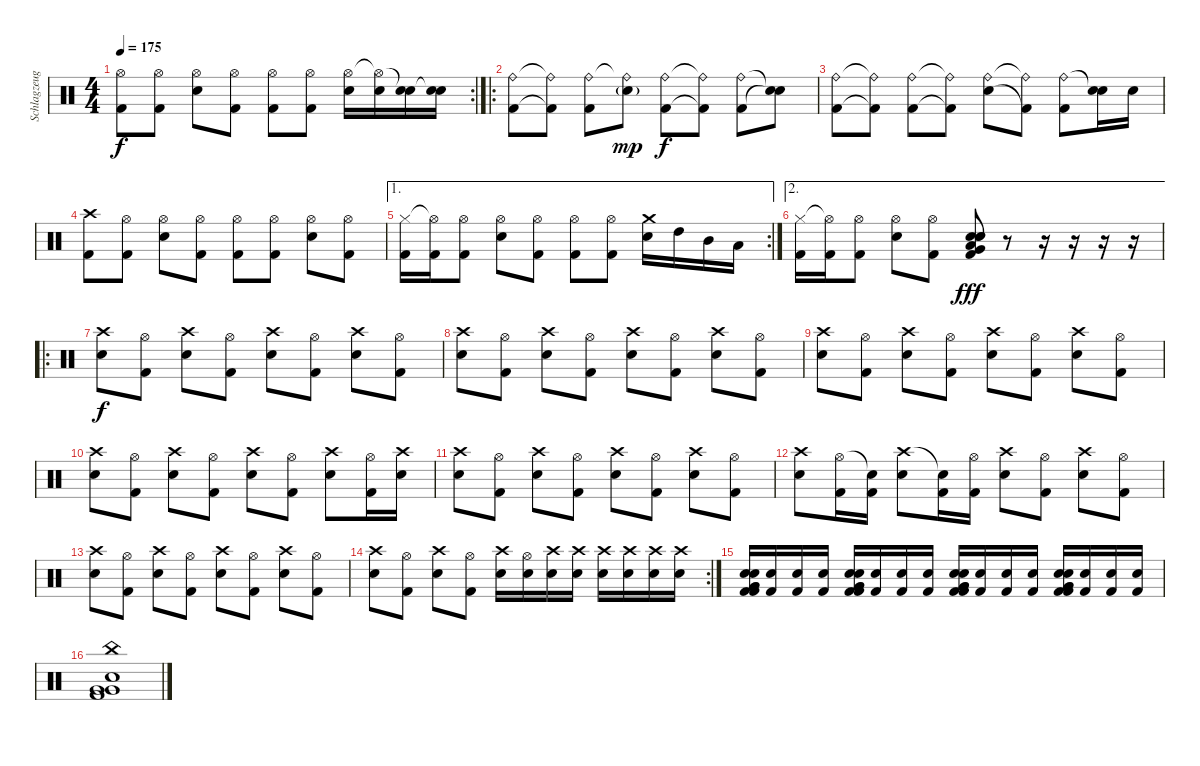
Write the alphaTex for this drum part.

\track ("Schlagzeug" "Schlagzeug") {instrument percussion}
\staff {score}
\articulation defaults
\rc 2
\ts (4 4)
\tempo 175
\clef neutral
\ks c
("Hi-Hat (open)" "Kick (hit) 2").8{dy f} ("Hi-Hat (open)" "Kick (hit) 2").8 ("Hi-Hat (open)" "Electric Snare (hit)").8 ("Hi-Hat (open)" "Kick (hit) 2").8 ("Hi-Hat (open)" "Kick (hit) 2").8 ("Hi-Hat (open)" "Kick (hit) 2").8 ("Hi-Hat (open)" "Electric Snare (hit)").16 ("Hi-Hat (open)"{t} "Electric Snare (hit)").16 ("Snare (hit)"{t} "Electric Snare (hit)").16 ("Snare (hit)"{t} "Electric Snare (hit)").16 |
\ro
("Ride (bell)" "Kick (hit) 2").8 ("Ride (bell)"{t} "Kick (hit) 2"{t}).8 ("Ride (bell)" "Kick (hit) 2").8 ("Ride (bell)"{t} "Electric Snare (hit)"{g}).8{dy mp} ("Ride (bell)" "Kick (hit) 2").8{dy f} ("Ride (bell)"{t} "Kick (hit) 2"{t}).8 ("Ride (bell)" "Kick (hit) 2").8 ("Snare (hit)"{t} "Snare (hit)"{t}).8 |
("Ride (bell)" "Kick (hit) 2").8 ("Ride (bell)"{t} "Kick (hit) 2"{t}).8 ("Ride (bell)" "Kick (hit) 2").8 ("Ride (bell)"{t} "Kick (hit) 2"{t}).8 ("Ride (bell)" "Electric Snare (hit)").8 ("Ride (bell)"{t} "Kick (hit) 2"{t}).8 ("Ride (bell)" "Kick (hit) 2").8 ("Snare (hit)"{t} "Electric Snare (hit)").16 "Electric Snare (hit)".16 |
("Crash high (hit)" "Kick (hit) 2").8 ("Hi-Hat (open)" "Kick (hit) 2").8 ("Hi-Hat (open)" "Electric Snare (hit)").8 ("Hi-Hat (open)" "Kick (hit) 2").8 ("Hi-Hat (open)" "Kick (hit) 2").8 ("Hi-Hat (open)" "Kick (hit) 2").8 ("Hi-Hat (open)" "Electric Snare (hit)").8 ("Hi-Hat (open)" "Kick (hit) 2").8 |
\ae 1
\rc 2
("Hi-Hat (closed)" "Kick (hit) 2").16 ("Hi-Hat (open)"{t} "Kick (hit) 2").16 ("Hi-Hat (open)" "Kick (hit) 2").8 ("Hi-Hat (open)" "Electric Snare (hit)").8 ("Hi-Hat (open)" "Kick (hit) 2").8 ("Hi-Hat (open)" "Kick (hit) 2").8 ("Hi-Hat (open)" "Kick (hit) 2").8 ("Crash medium (hit)" "Electric Snare (hit)").16 "High Tom (hit)".16 "Mid Tom (hit)".16 "Low Tom (hit)".16 |
\ae 2
("Hi-Hat (closed)" "Kick (hit) 2").16 ("Hi-Hat (open)"{t} "Kick (hit) 2").16 ("Hi-Hat (open)" "Kick (hit) 2").8 ("Hi-Hat (open)" "Electric Snare (hit)").8 ("Hi-Hat (open)" "Kick (hit) 2").8 ("Electric Snare (hit)" "Very Low Tom (hit)" "Low Floor Tom (hit)" "Kick (hit) 2" "Electric Snare (hit)" "Electric Snare (hit)").8{dy fff} r.8 r.16 r.16 r.16 r.16 |
\ro
("Crash high (hit)" "Electric Snare (hit)").8{dy f} ("Hi-Hat (open)" "Kick (hit) 2").8 ("Crash high (hit)" "Electric Snare (hit)").8 ("Hi-Hat (open)" "Kick (hit) 2").8 ("Crash high (hit)" "Electric Snare (hit)").8 ("Hi-Hat (open)" "Kick (hit) 2").8 ("Crash high (hit)" "Electric Snare (hit)").8 ("Hi-Hat (open)" "Kick (hit) 2").8 |
("Crash high (hit)" "Electric Snare (hit)").8 ("Hi-Hat (open)" "Kick (hit) 2").8 ("Crash high (hit)" "Electric Snare (hit)").8 ("Hi-Hat (open)" "Kick (hit) 2").8 ("Crash high (hit)" "Electric Snare (hit)").8 ("Hi-Hat (open)" "Kick (hit) 2").8 ("Crash high (hit)" "Electric Snare (hit)").8 ("Hi-Hat (open)" "Kick (hit) 2").8 |
("Crash high (hit)" "Electric Snare (hit)").8 ("Hi-Hat (open)" "Kick (hit) 2").8 ("Crash high (hit)" "Electric Snare (hit)").8 ("Hi-Hat (open)" "Kick (hit) 2").8 ("Crash high (hit)" "Electric Snare (hit)").8 ("Hi-Hat (open)" "Kick (hit) 2").8 ("Crash high (hit)" "Electric Snare (hit)").8 ("Hi-Hat (open)" "Kick (hit) 2").8 |
("Crash high (hit)" "Electric Snare (hit)").8 ("Hi-Hat (open)" "Kick (hit) 2").8 ("Crash high (hit)" "Electric Snare (hit)").8 ("Hi-Hat (open)" "Kick (hit) 2").8 ("Crash high (hit)" "Electric Snare (hit)").8 ("Hi-Hat (open)" "Kick (hit) 2").8 ("Crash high (hit)" "Electric Snare (hit)").8 ("Hi-Hat (open)" "Kick (hit) 2").16 ("Crash high (hit)" "Electric Snare (hit)").16 |
("Crash high (hit)" "Electric Snare (hit)").8 ("Hi-Hat (open)" "Kick (hit) 2").8 ("Crash high (hit)" "Electric Snare (hit)").8 ("Hi-Hat (open)" "Kick (hit) 2").8 ("Crash high (hit)" "Electric Snare (hit)").8 ("Hi-Hat (open)" "Kick (hit) 2").8 ("Crash high (hit)" "Electric Snare (hit)").8 ("Hi-Hat (open)" "Kick (hit) 2").8 |
("Crash high (hit)" "Electric Snare (hit)").8 ("Hi-Hat (open)" "Kick (hit) 2").16 ("Snare (hit)"{t} "Kick (hit) 2").16 ("Crash high (hit)" "Electric Snare (hit)").8 ("Snare (hit)"{t} "Kick (hit) 2").16 ("Hi-Hat (open)" "Kick (hit) 2").16 ("Crash high (hit)" "Electric Snare (hit)").8 ("Hi-Hat (open)" "Kick (hit) 2").8 ("Crash high (hit)" "Electric Snare (hit)").8 ("Hi-Hat (open)" "Kick (hit) 2").8 |
("Crash high (hit)" "Electric Snare (hit)").8 ("Hi-Hat (open)" "Kick (hit) 2").8 ("Crash high (hit)" "Electric Snare (hit)").8 ("Hi-Hat (open)" "Kick (hit) 2").8 ("Crash high (hit)" "Electric Snare (hit)").8 ("Hi-Hat (open)" "Kick (hit) 2").8 ("Crash high (hit)" "Electric Snare (hit)").8 ("Hi-Hat (open)" "Kick (hit) 2").8 |
\rc 2
("Crash high (hit)" "Electric Snare (hit)").8 ("Hi-Hat (open)" "Kick (hit) 2").8 ("Crash high (hit)" "Electric Snare (hit)").8 ("Hi-Hat (open)" "Kick (hit) 2").8 ("Crash high (hit)" "Electric Snare (hit)").16 ("Hi-Hat (open)" "Electric Snare (hit)").16 ("Crash high (hit)" "Electric Snare (hit)").16 ("Crash high (hit)" "Electric Snare (hit)").16 ("Crash high (hit)" "Electric Snare (hit)").16 ("Crash high (hit)" "Electric Snare (hit)").16 ("Crash high (hit)" "Electric Snare (hit)").16 ("Crash high (hit)" "Electric Snare (hit)").16 |
("Electric Snare (hit)" "Very Low Tom (hit)" "Kick (hit) 2" "Kick (hit) 2" "Very Low Tom (hit)" "Electric Snare (hit)").16 ("Kick (hit) 2" "Electric Snare (hit)").16 ("Kick (hit) 2" "Electric Snare (hit)").16 ("Kick (hit) 2" "Electric Snare (hit)").16 ("Electric Snare (hit)" "Very Low Tom (hit)" "Kick (hit) 2" "Kick (hit) 2" "Very Low Tom (hit)" "Electric Snare (hit)").16 ("Kick (hit) 2" "Electric Snare (hit)").16 ("Kick (hit) 2" "Electric Snare (hit)").16 ("Kick (hit) 2" "Electric Snare (hit)").16 ("Electric Snare (hit)" "Very Low Tom (hit)" "Kick (hit) 2" "Kick (hit) 2" "Very Low Tom (hit)" "Electric Snare (hit)").16 ("Kick (hit) 2" "Electric Snare (hit)").16 ("Kick (hit) 2" "Electric Snare (hit)").16 ("Kick (hit) 2" "Electric Snare (hit)").16 ("Electric Snare (hit)" "Very Low Tom (hit)" "Kick (hit) 2" "Kick (hit) 2" "Very Low Tom (hit)" "Electric Snare (hit)").16 ("Kick (hit) 2" "Electric Snare (hit)").16 ("Kick (hit) 2" "Electric Snare (hit)").16 ("Kick (hit) 2" "Electric Snare (hit)").16 |
("China (hit)" "Very Low Tom (hit)" "Kick (hit) 2" "Very Low Tom (hit)" "Electric Snare (hit)").1
